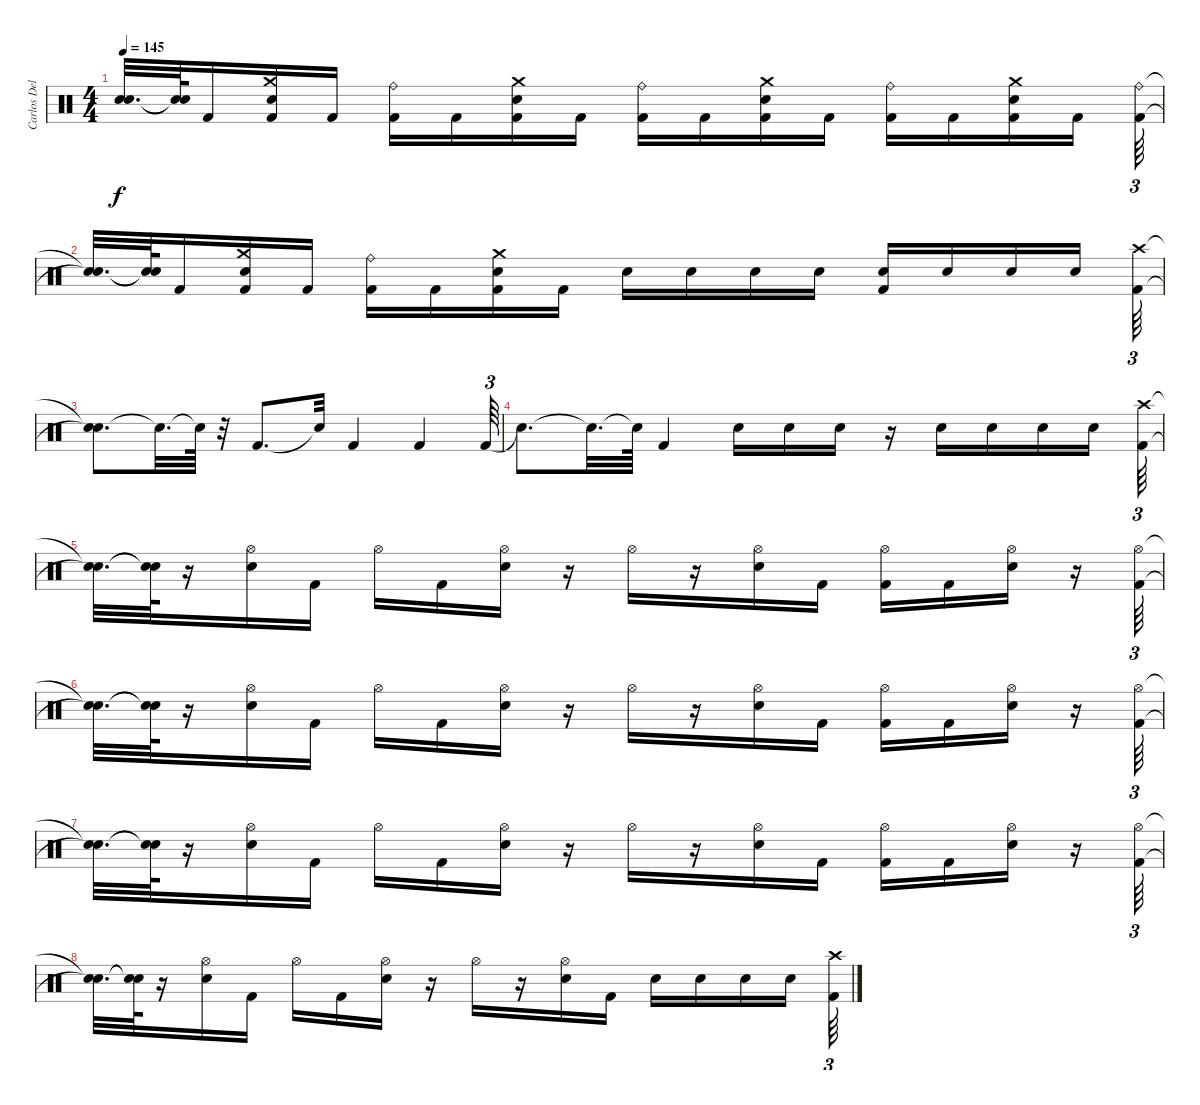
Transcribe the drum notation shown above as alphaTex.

\track ("Carlos Delgado" "Carlos Del") {instrument percussion}
\staff {score}
\articulation defaults
\ts (4 4)
\tempo 145
\clef neutral
\ks c
("Snare (hit)"{t} "Snare (hit)"{t}).32{d dy f} ("Snare (hit)"{t} "Snare (hit)"{t}).64 "Kick (hit) 2".16 ("Kick (hit) 2" "Crash medium (hit)" "Electric Snare (hit)").16 "Kick (hit) 2".16 ("Kick (hit) 2" "Ride (bell)").16 "Kick (hit) 2".16 ("Kick (hit) 2" "Crash medium (hit)" "Electric Snare (hit)").16 "Kick (hit) 2".16 ("Ride (bell)" "Kick (hit) 2").16 "Kick (hit) 2".16 ("Kick (hit) 2" "Crash medium (hit)" "Electric Snare (hit)").16 "Kick (hit) 2".16 ("Kick (hit) 2" "Ride (bell)").16 "Kick (hit) 2".16 ("Kick (hit) 2" "Crash medium (hit)" "Electric Snare (hit)").16 "Kick (hit) 2".16 ("Kick (hit) 2" "Ride (bell)").64{tu (3 2)} |
("Snare (hit)"{t} "Snare (hit)"{t}).32{d} ("Snare (hit)"{t} "Snare (hit)"{t}).64 "Kick (hit) 2".16 ("Kick (hit) 2" "Electric Snare (hit)" "Crash medium (hit)").16 "Kick (hit) 2".16 ("Kick (hit) 2" "Ride (bell)").16 "Kick (hit) 2".16 ("Kick (hit) 2" "Electric Snare (hit)" "Crash medium (hit)").16 "Kick (hit) 2".16 "Electric Snare (hit)".16 "Electric Snare (hit)".16 "Electric Snare (hit)".16 "Electric Snare (hit)".16 ("Electric Snare (hit)" "Kick (hit) 2").16 "Electric Snare (hit)".16 "Electric Snare (hit)".16 "Electric Snare (hit)".16 ("Crash high (hit)" "Kick (hit) 2").64{tu (3 2)} |
("Snare (hit)"{t} "Snare (hit)"{t}).8{d} "Snare (hit)"{t}.32{d} "Snare (hit)"{t}.64 r.32 "Kick (hit) 2".8{d} "Snare (hit)"{t}.32 "Kick (hit) 2".4 "Kick (hit) 2".4 "Kick (hit) 2".64{tu (3 2)} |
"Snare (hit)"{t}.8{d} "Snare (hit)"{t}.32{d} "Snare (hit)"{t}.64 "Kick (hit) 2".4 "Electric Snare (hit)".16 "Electric Snare (hit)".16 "Electric Snare (hit)".16 r.16 "Electric Snare (hit)".16 "Electric Snare (hit)".16 "Electric Snare (hit)".16 "Electric Snare (hit)".16 ("Kick (hit) 2" "Crash high (hit)").64{tu (3 2)} |
("Snare (hit)"{t} "Snare (hit)"{t}).32{d} ("Snare (hit)"{t} "Snare (hit)"{t}).64 r.16 ("Electric Snare (hit)" "Hi-Hat (open)").16 "Kick (hit) 2".16 "Hi-Hat (open)".16 "Kick (hit) 2".16 ("Electric Snare (hit)" "Hi-Hat (open)").16 r.16 "Hi-Hat (open)".16 r.16 ("Hi-Hat (open)" "Electric Snare (hit)").16 "Kick (hit) 2".16 ("Hi-Hat (open)" "Kick (hit) 2").16 "Kick (hit) 2".16 ("Hi-Hat (open)" "Electric Snare (hit)").16 r.16 ("Hi-Hat (open)" "Kick (hit) 2").64{tu (3 2)} |
("Snare (hit)"{t} "Snare (hit)"{t}).32{d} ("Snare (hit)"{t} "Snare (hit)"{t}).64 r.16 ("Hi-Hat (open)" "Electric Snare (hit)").16 "Kick (hit) 2".16 "Hi-Hat (open)".16 "Kick (hit) 2".16 ("Electric Snare (hit)" "Hi-Hat (open)").16 r.16 "Hi-Hat (open)".16 r.16 ("Hi-Hat (open)" "Electric Snare (hit)").16 "Kick (hit) 2".16 ("Kick (hit) 2" "Hi-Hat (open)").16 "Kick (hit) 2".16 ("Hi-Hat (open)" "Electric Snare (hit)").16 r.16 ("Hi-Hat (open)" "Kick (hit) 2").64{tu (3 2)} |
("Snare (hit)"{t} "Snare (hit)"{t}).32{d} ("Snare (hit)"{t} "Snare (hit)"{t}).64 r.16 ("Hi-Hat (open)" "Electric Snare (hit)").16 "Kick (hit) 2".16 "Hi-Hat (open)".16 "Kick (hit) 2".16 ("Hi-Hat (open)" "Electric Snare (hit)").16 r.16 "Hi-Hat (open)".16 r.16 ("Hi-Hat (open)" "Electric Snare (hit)").16 "Kick (hit) 2".16 ("Hi-Hat (open)" "Kick (hit) 2").16 "Kick (hit) 2".16 ("Electric Snare (hit)" "Hi-Hat (open)").16 r.16 ("Kick (hit) 2" "Hi-Hat (open)").64{tu (3 2)} |
("Snare (hit)"{t} "Snare (hit)"{t}).32{d} ("Snare (hit)"{t} "Snare (hit)"{t}).64 r.16 ("Electric Snare (hit)" "Hi-Hat (open)").16 "Kick (hit) 2".16 "Hi-Hat (open)".16 "Kick (hit) 2".16 ("Hi-Hat (open)" "Electric Snare (hit)").16 r.16 "Hi-Hat (open)".16 r.16 ("Electric Snare (hit)" "Hi-Hat (open)").16 "Kick (hit) 2".16 "Electric Snare (hit)".16 "Electric Snare (hit)".16 "Electric Snare (hit)".16 "Electric Snare (hit)".16 ("Kick (hit) 2" "Crash high (hit)").64{tu (3 2)}
